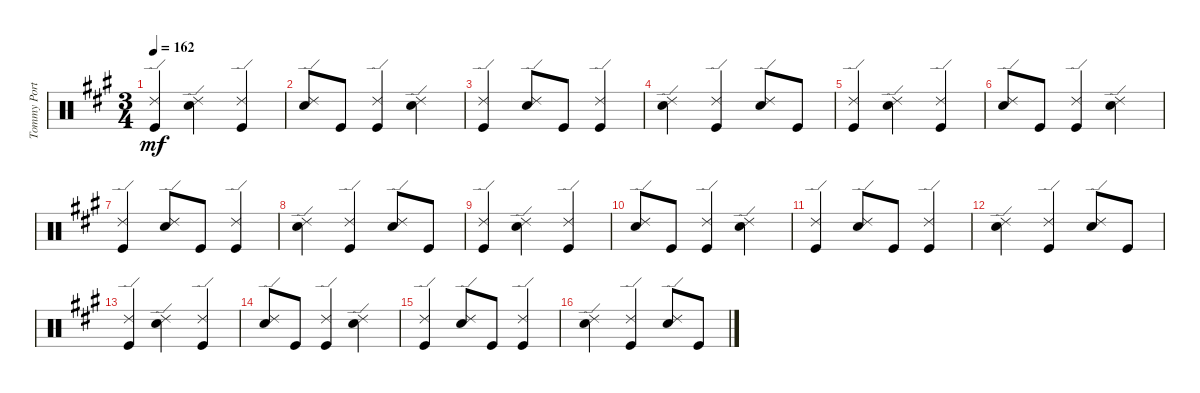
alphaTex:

\track ("Tommy Portimo (Drums)" "Tommy Port") {instrument percussion}
\staff {score}
\articulation defaults
\ts (3 4)
\tempo 162
\clef neutral
\ks a
("Kick (hit)" "Ride (edge) 2").4{dy mf} ("Electric Snare (hit)" "Ride (edge) 2").4 ("Kick (hit)" "Ride (edge) 2").4 |
("Electric Snare (hit)" "Ride (edge) 2").8 "Kick (hit)".8 ("Kick (hit)" "Ride (edge) 2").4 ("Electric Snare (hit)" "Ride (edge) 2").4 |
("Kick (hit)" "Ride (edge) 2").4 ("Electric Snare (hit)" "Ride (edge) 2").8 "Kick (hit)".8 ("Kick (hit)" "Ride (edge) 2").4 |
("Electric Snare (hit)" "Ride (edge) 2").4 ("Kick (hit)" "Ride (edge) 2").4 ("Electric Snare (hit)" "Ride (edge) 2").8 "Kick (hit)".8 |
("Kick (hit)" "Ride (edge) 2").4 ("Electric Snare (hit)" "Ride (edge) 2").4 ("Kick (hit)" "Ride (edge) 2").4 |
("Electric Snare (hit)" "Ride (edge) 2").8 "Kick (hit)".8 ("Kick (hit)" "Ride (edge) 2").4 ("Electric Snare (hit)" "Ride (edge) 2").4 |
("Kick (hit)" "Ride (edge) 2").4 ("Electric Snare (hit)" "Ride (edge) 2").8 "Kick (hit)".8 ("Kick (hit)" "Ride (edge) 2").4 |
("Electric Snare (hit)" "Ride (edge) 2").4 ("Kick (hit)" "Ride (edge) 2").4 ("Electric Snare (hit)" "Ride (edge) 2").8 "Kick (hit)".8 |
("Kick (hit)" "Ride (edge) 2").4 ("Electric Snare (hit)" "Ride (edge) 2").4 ("Kick (hit)" "Ride (edge) 2").4 |
("Electric Snare (hit)" "Ride (edge) 2").8 "Kick (hit)".8 ("Kick (hit)" "Ride (edge) 2").4 ("Electric Snare (hit)" "Ride (edge) 2").4 |
("Kick (hit)" "Ride (edge) 2").4 ("Electric Snare (hit)" "Ride (edge) 2").8 "Kick (hit)".8 ("Kick (hit)" "Ride (edge) 2").4 |
("Electric Snare (hit)" "Ride (edge) 2").4 ("Kick (hit)" "Ride (edge) 2").4 ("Electric Snare (hit)" "Ride (edge) 2").8 "Kick (hit)".8 |
("Kick (hit)" "Ride (edge) 2").4 ("Electric Snare (hit)" "Ride (edge) 2").4 ("Kick (hit)" "Ride (edge) 2").4 |
("Electric Snare (hit)" "Ride (edge) 2").8 "Kick (hit)".8 ("Kick (hit)" "Ride (edge) 2").4 ("Electric Snare (hit)" "Ride (edge) 2").4 |
("Kick (hit)" "Ride (edge) 2").4 ("Electric Snare (hit)" "Ride (edge) 2").8 "Kick (hit)".8 ("Kick (hit)" "Ride (edge) 2").4 |
("Electric Snare (hit)" "Ride (edge) 2").4 ("Kick (hit)" "Ride (edge) 2").4 ("Electric Snare (hit)" "Ride (edge) 2").8 "Kick (hit)".8
